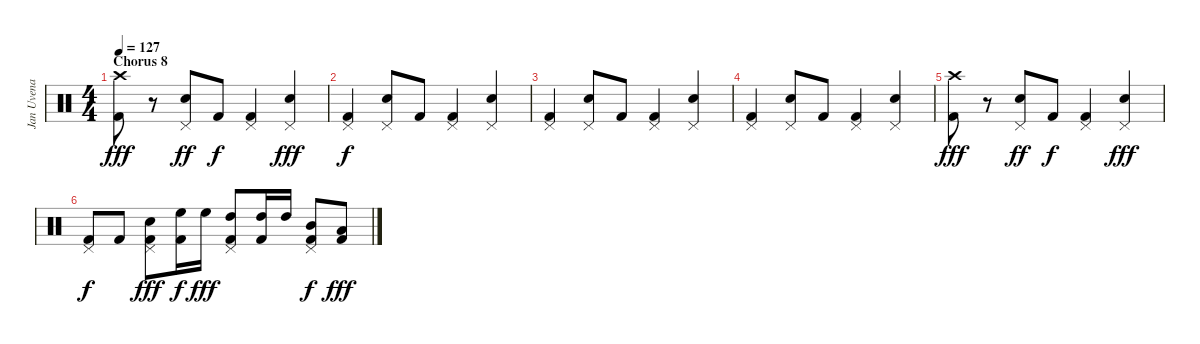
\track ("Jan Uvena" "Jan Uvena") {instrument percussion}
\staff {score}
\articulation defaults
\ts (4 4)
\section ("" "Chorus 8")
\tempo 127
\clef neutral
\ks c
("Crash high (hit)" "Kick (hit) 2").8{dy fff volume 9} r.8 ("Pedal Hi-Hat (hit)" "Snare (hit) 2").8{dy ff} "Kick (hit) 2".8{dy f} ("Pedal Hi-Hat (hit)" "Kick (hit) 2").4 ("Pedal Hi-Hat (hit)" "Snare (hit) 2").4{dy fff} |
("Pedal Hi-Hat (hit)" "Kick (hit) 2").4{dy f} ("Pedal Hi-Hat (hit)" "Snare (hit) 2").8 "Kick (hit) 2".8 ("Pedal Hi-Hat (hit)" "Kick (hit) 2").4 ("Pedal Hi-Hat (hit)" "Snare (hit) 2").4 |
("Pedal Hi-Hat (hit)" "Kick (hit) 2").4{volume 6} ("Pedal Hi-Hat (hit)" "Snare (hit) 2").8 "Kick (hit) 2".8 ("Pedal Hi-Hat (hit)" "Kick (hit) 2").4 ("Pedal Hi-Hat (hit)" "Snare (hit) 2").4 |
("Pedal Hi-Hat (hit)" "Kick (hit) 2").4 ("Pedal Hi-Hat (hit)" "Snare (hit) 2").8 "Kick (hit) 2".8 ("Pedal Hi-Hat (hit)" "Kick (hit) 2").4 ("Pedal Hi-Hat (hit)" "Snare (hit) 2").4 |
("Crash high (hit)" "Kick (hit) 2").8{dy fff volume 0} r.8 ("Pedal Hi-Hat (hit)" "Snare (hit) 2").8{dy ff} "Kick (hit) 2".8{dy f} ("Pedal Hi-Hat (hit)" "Kick (hit) 2").4 ("Pedal Hi-Hat (hit)" "Snare (hit) 2").4{dy fff} |
("Pedal Hi-Hat (hit)" "Kick (hit) 2").8{dy f} "Kick (hit) 2".8 ("Pedal Hi-Hat (hit)" "Snare (hit) 2" "Kick (hit) 2").8{dy fff} ("High Floor Tom (hit)" "Kick (hit) 2").16{dy f} "High Floor Tom (hit)".16{dy fff} ("High Tom (hit)" "Pedal Hi-Hat (hit)" "Kick (hit) 2").8 ("High Tom (hit)" "Kick (hit) 2").16 "High Tom (hit)".16 ("Mid Tom (hit)" "Pedal Hi-Hat (hit)" "Kick (hit) 2").8{dy f} ("Low Tom (hit)" "Kick (hit) 2").8{dy fff}
